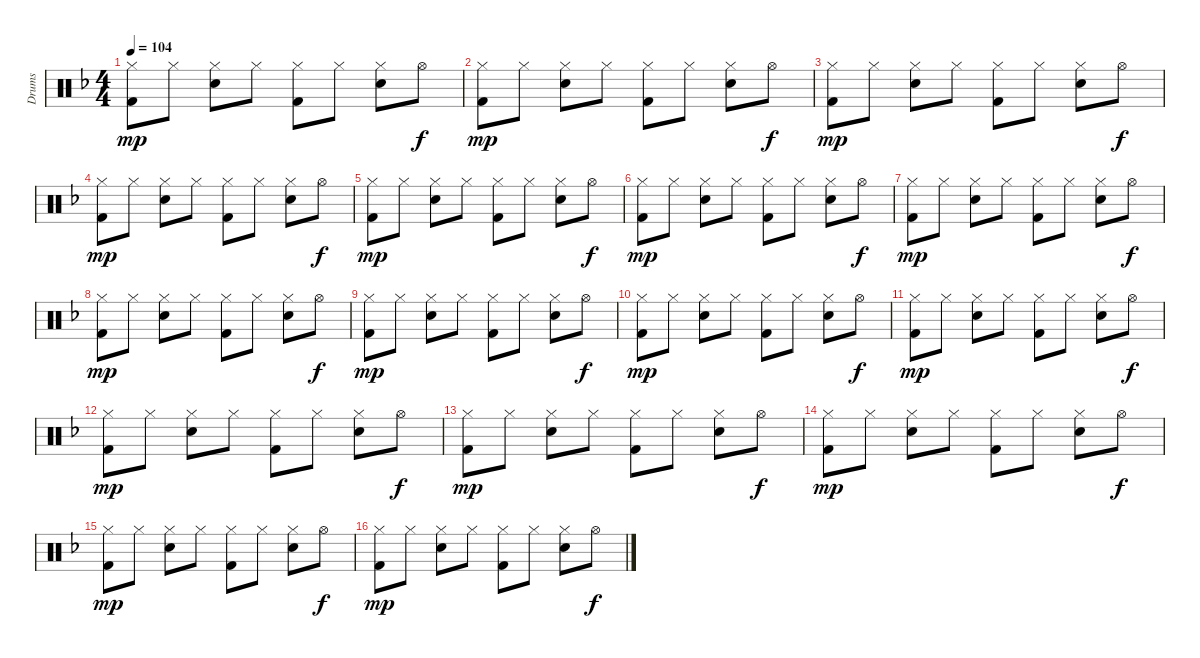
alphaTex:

\track ("Drums" "Drums") {instrument percussion}
\staff {score}
\articulation defaults
\ts (4 4)
\tempo 104
\clef neutral
\ks dminor
("Hi-Hat (closed)" "Kick (hit) 2").8{dy mp} "Hi-Hat (closed)".8 ("Hi-Hat (closed)" "Snare (hit) 2").8 "Hi-Hat (closed)".8 ("Hi-Hat (closed)" "Kick (hit) 2").8 "Hi-Hat (closed)".8 ("Hi-Hat (closed)" "Snare (hit) 2").8 "Hi-Hat (open)".8{dy f} |
("Hi-Hat (closed)" "Kick (hit) 2").8{dy mp} "Hi-Hat (closed)".8 ("Hi-Hat (closed)" "Snare (hit) 2").8 "Hi-Hat (closed)".8 ("Hi-Hat (closed)" "Kick (hit) 2").8 "Hi-Hat (closed)".8 ("Hi-Hat (closed)" "Snare (hit) 2").8 "Hi-Hat (open)".8{dy f} |
("Hi-Hat (closed)" "Kick (hit) 2").8{dy mp} "Hi-Hat (closed)".8 ("Hi-Hat (closed)" "Snare (hit) 2").8 "Hi-Hat (closed)".8 ("Hi-Hat (closed)" "Kick (hit) 2").8 "Hi-Hat (closed)".8 ("Hi-Hat (closed)" "Snare (hit) 2").8 "Hi-Hat (open)".8{dy f} |
("Hi-Hat (closed)" "Kick (hit) 2").8{dy mp} "Hi-Hat (closed)".8 ("Hi-Hat (closed)" "Snare (hit) 2").8 "Hi-Hat (closed)".8 ("Hi-Hat (closed)" "Kick (hit) 2").8 "Hi-Hat (closed)".8 ("Hi-Hat (closed)" "Snare (hit) 2").8 "Hi-Hat (open)".8{dy f} |
("Hi-Hat (closed)" "Kick (hit) 2").8{dy mp} "Hi-Hat (closed)".8 ("Hi-Hat (closed)" "Snare (hit) 2").8 "Hi-Hat (closed)".8 ("Hi-Hat (closed)" "Kick (hit) 2").8 "Hi-Hat (closed)".8 ("Hi-Hat (closed)" "Snare (hit) 2").8 "Hi-Hat (open)".8{dy f} |
("Hi-Hat (closed)" "Kick (hit) 2").8{dy mp} "Hi-Hat (closed)".8 ("Hi-Hat (closed)" "Snare (hit) 2").8 "Hi-Hat (closed)".8 ("Hi-Hat (closed)" "Kick (hit) 2").8 "Hi-Hat (closed)".8 ("Hi-Hat (closed)" "Snare (hit) 2").8 "Hi-Hat (open)".8{dy f} |
("Hi-Hat (closed)" "Kick (hit) 2").8{dy mp} "Hi-Hat (closed)".8 ("Hi-Hat (closed)" "Snare (hit) 2").8 "Hi-Hat (closed)".8 ("Hi-Hat (closed)" "Kick (hit) 2").8 "Hi-Hat (closed)".8 ("Hi-Hat (closed)" "Snare (hit) 2").8 "Hi-Hat (open)".8{dy f} |
("Hi-Hat (closed)" "Kick (hit) 2").8{dy mp} "Hi-Hat (closed)".8 ("Hi-Hat (closed)" "Snare (hit) 2").8 "Hi-Hat (closed)".8 ("Hi-Hat (closed)" "Kick (hit) 2").8 "Hi-Hat (closed)".8 ("Hi-Hat (closed)" "Snare (hit) 2").8 "Hi-Hat (open)".8{dy f} |
("Hi-Hat (closed)" "Kick (hit) 2").8{dy mp} "Hi-Hat (closed)".8 ("Hi-Hat (closed)" "Snare (hit) 2").8 "Hi-Hat (closed)".8 ("Hi-Hat (closed)" "Kick (hit) 2").8 "Hi-Hat (closed)".8 ("Hi-Hat (closed)" "Snare (hit) 2").8 "Hi-Hat (open)".8{dy f} |
("Hi-Hat (closed)" "Kick (hit) 2").8{dy mp} "Hi-Hat (closed)".8 ("Hi-Hat (closed)" "Snare (hit) 2").8 "Hi-Hat (closed)".8 ("Hi-Hat (closed)" "Kick (hit) 2").8 "Hi-Hat (closed)".8 ("Hi-Hat (closed)" "Snare (hit) 2").8 "Hi-Hat (open)".8{dy f} |
("Hi-Hat (closed)" "Kick (hit) 2").8{dy mp} "Hi-Hat (closed)".8 ("Hi-Hat (closed)" "Snare (hit) 2").8 "Hi-Hat (closed)".8 ("Hi-Hat (closed)" "Kick (hit) 2").8 "Hi-Hat (closed)".8 ("Hi-Hat (closed)" "Snare (hit) 2").8 "Hi-Hat (open)".8{dy f} |
("Hi-Hat (closed)" "Kick (hit) 2").8{dy mp} "Hi-Hat (closed)".8 ("Hi-Hat (closed)" "Snare (hit) 2").8 "Hi-Hat (closed)".8 ("Hi-Hat (closed)" "Kick (hit) 2").8 "Hi-Hat (closed)".8 ("Hi-Hat (closed)" "Snare (hit) 2").8 "Hi-Hat (open)".8{dy f} |
("Hi-Hat (closed)" "Kick (hit) 2").8{dy mp} "Hi-Hat (closed)".8 ("Hi-Hat (closed)" "Snare (hit) 2").8 "Hi-Hat (closed)".8 ("Hi-Hat (closed)" "Kick (hit) 2").8 "Hi-Hat (closed)".8 ("Hi-Hat (closed)" "Snare (hit) 2").8 "Hi-Hat (open)".8{dy f} |
("Hi-Hat (closed)" "Kick (hit) 2").8{dy mp} "Hi-Hat (closed)".8 ("Hi-Hat (closed)" "Snare (hit) 2").8 "Hi-Hat (closed)".8 ("Hi-Hat (closed)" "Kick (hit) 2").8 "Hi-Hat (closed)".8 ("Hi-Hat (closed)" "Snare (hit) 2").8 "Hi-Hat (open)".8{dy f} |
("Hi-Hat (closed)" "Kick (hit) 2").8{dy mp} "Hi-Hat (closed)".8 ("Hi-Hat (closed)" "Snare (hit) 2").8 "Hi-Hat (closed)".8 ("Hi-Hat (closed)" "Kick (hit) 2").8 "Hi-Hat (closed)".8 ("Hi-Hat (closed)" "Snare (hit) 2").8 "Hi-Hat (open)".8{dy f} |
("Hi-Hat (closed)" "Kick (hit) 2").8{dy mp} "Hi-Hat (closed)".8 ("Hi-Hat (closed)" "Snare (hit) 2").8 "Hi-Hat (closed)".8 ("Hi-Hat (closed)" "Kick (hit) 2").8 "Hi-Hat (closed)".8 ("Hi-Hat (closed)" "Snare (hit) 2").8 "Hi-Hat (open)".8{dy f}
